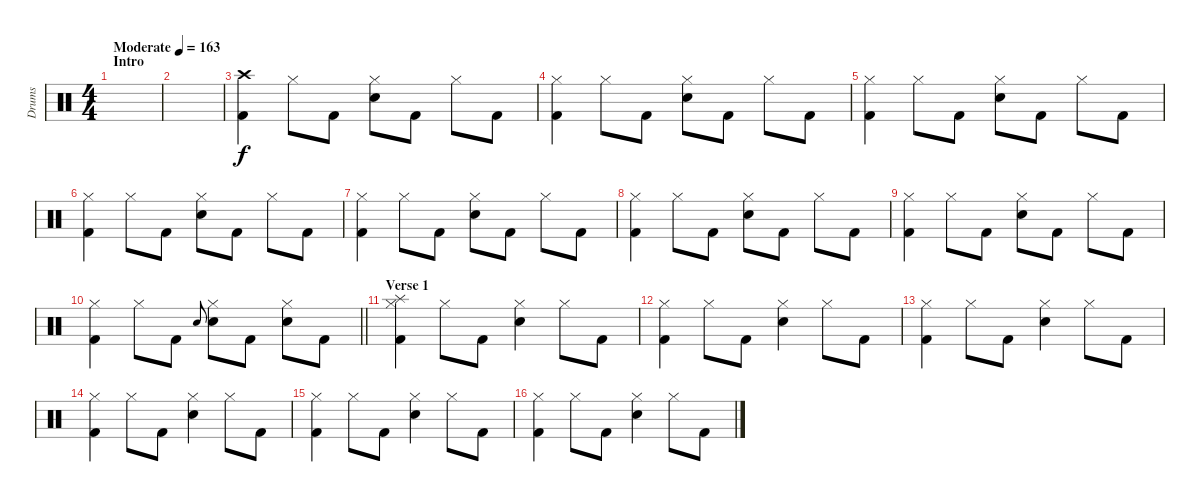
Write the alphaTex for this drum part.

\track ("Drums" "Drums") {instrument percussion}
\staff {score}
\articulation defaults
\ts (4 4)
\section ("" "Intro")
\tempo (163 "Moderate")
\clef neutral
\ks c
|
|
("Crash high (hit)" "Kick (hit) 2").4 "Hi-Hat (closed)".8 "Kick (hit) 2".8 ("Hi-Hat (closed)" "Snare (hit) 2").8 "Kick (hit) 2".8 "Hi-Hat (closed)".8 "Kick (hit) 2".8 |
("Hi-Hat (closed)" "Kick (hit) 2").4 "Hi-Hat (closed)".8 "Kick (hit) 2".8 ("Hi-Hat (closed)" "Snare (hit) 2").8 "Kick (hit) 2".8 "Hi-Hat (closed)".8 "Kick (hit) 2".8 |
("Hi-Hat (closed)" "Kick (hit) 2").4 "Hi-Hat (closed)".8 "Kick (hit) 2".8 ("Hi-Hat (closed)" "Snare (hit) 2").8 "Kick (hit) 2".8 "Hi-Hat (closed)".8 "Kick (hit) 2".8 |
("Hi-Hat (closed)" "Kick (hit) 2").4 "Hi-Hat (closed)".8 "Kick (hit) 2".8 ("Hi-Hat (closed)" "Snare (hit) 2").8 "Kick (hit) 2".8 "Hi-Hat (closed)".8 "Kick (hit) 2".8 |
("Hi-Hat (closed)" "Kick (hit) 2").4 "Hi-Hat (closed)".8 "Kick (hit) 2".8 ("Hi-Hat (closed)" "Snare (hit) 2").8 "Kick (hit) 2".8 "Hi-Hat (closed)".8 "Kick (hit) 2".8 |
("Hi-Hat (closed)" "Kick (hit) 2").4 "Hi-Hat (closed)".8 "Kick (hit) 2".8 ("Hi-Hat (closed)" "Snare (hit) 2").8 "Kick (hit) 2".8 "Hi-Hat (closed)".8 "Kick (hit) 2".8 |
("Hi-Hat (closed)" "Kick (hit) 2").4 "Hi-Hat (closed)".8 "Kick (hit) 2".8 ("Hi-Hat (closed)" "Snare (hit) 2").8 "Kick (hit) 2".8 "Hi-Hat (closed)".8 "Kick (hit) 2".8 |
\barLineRight lightlight
("Hi-Hat (closed)" "Kick (hit) 2").4 "Hi-Hat (closed)".8 "Kick (hit) 2".8 "Snare (hit) 2".8{gr onbeat} ("Hi-Hat (closed)" "Snare (hit) 2").8 "Kick (hit) 2".8 ("Hi-Hat (closed)" "Snare (hit) 2").8 "Kick (hit) 2".8 |
\section ("" "Verse 1")
("Splash (hit)" "Hi-Hat (closed)" "Kick (hit) 2").4 "Hi-Hat (closed)".8 "Kick (hit) 2".8 ("Hi-Hat (closed)" "Snare (hit) 2").4 "Hi-Hat (closed)".8 "Kick (hit) 2".8 |
("Hi-Hat (closed)" "Kick (hit) 2").4 "Hi-Hat (closed)".8 "Kick (hit) 2".8 ("Hi-Hat (closed)" "Snare (hit) 2").4 "Hi-Hat (closed)".8 "Kick (hit) 2".8 |
("Hi-Hat (closed)" "Kick (hit) 2").4 "Hi-Hat (closed)".8 "Kick (hit) 2".8 ("Hi-Hat (closed)" "Snare (hit) 2").4 "Hi-Hat (closed)".8 "Kick (hit) 2".8 |
("Hi-Hat (closed)" "Kick (hit) 2").4 "Hi-Hat (closed)".8 "Kick (hit) 2".8 ("Hi-Hat (closed)" "Snare (hit) 2").4 "Hi-Hat (closed)".8 "Kick (hit) 2".8 |
("Hi-Hat (closed)" "Kick (hit) 2").4 "Hi-Hat (closed)".8 "Kick (hit) 2".8 ("Hi-Hat (closed)" "Snare (hit) 2").4 "Hi-Hat (closed)".8 "Kick (hit) 2".8 |
("Hi-Hat (closed)" "Kick (hit) 2").4 "Hi-Hat (closed)".8 "Kick (hit) 2".8 ("Hi-Hat (closed)" "Snare (hit) 2").4 "Hi-Hat (closed)".8 "Kick (hit) 2".8
